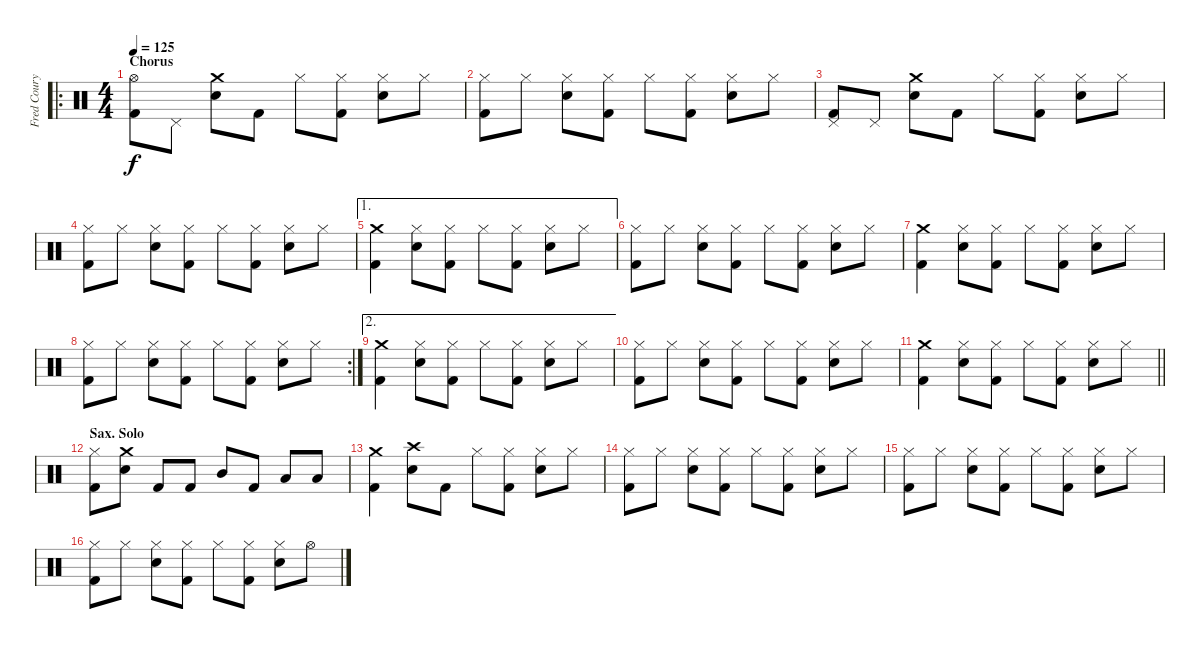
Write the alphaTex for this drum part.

\track ("Fred Coury - Drums" "Fred Coury") {instrument percussion}
\staff {score}
\articulation defaults
\ro
\ts (4 4)
\section ("" "Chorus")
\tempo 125
\clef neutral
\ks c
("Hi-Hat (open)" "Kick (hit) 2").8{dy f} "Pedal Hi-Hat (hit)".8 ("Crash medium (hit)" "Snare (hit) 2").8 "Kick (hit) 2".8 "Hi-Hat (closed)".8 ("Hi-Hat (closed)" "Kick (hit) 2").8 ("Hi-Hat (closed)" "Snare (hit) 2").8 "Hi-Hat (closed)".8 |
("Hi-Hat (closed)" "Kick (hit) 2").8 "Hi-Hat (closed)".8 ("Hi-Hat (closed)" "Snare (hit) 2").8 ("Hi-Hat (closed)" "Kick (hit) 2").8 "Hi-Hat (closed)".8 ("Hi-Hat (closed)" "Kick (hit) 2").8 ("Hi-Hat (closed)" "Snare (hit) 2").8 "Hi-Hat (closed)".8 |
("Pedal Hi-Hat (hit)" "Kick (hit) 2").8 "Pedal Hi-Hat (hit)".8 ("Crash medium (hit)" "Snare (hit) 2").8 "Kick (hit) 2".8 "Hi-Hat (closed)".8 ("Hi-Hat (closed)" "Kick (hit) 2").8 ("Hi-Hat (closed)" "Snare (hit) 2").8 "Hi-Hat (closed)".8 |
("Hi-Hat (closed)" "Kick (hit) 2").8 "Hi-Hat (closed)".8 ("Hi-Hat (closed)" "Snare (hit) 2").8 ("Hi-Hat (closed)" "Kick (hit) 2").8 "Hi-Hat (closed)".8 ("Hi-Hat (closed)" "Kick (hit) 2").8 ("Hi-Hat (closed)" "Snare (hit) 2").8 "Hi-Hat (closed)".8 |
\ae 1
("Crash medium (hit)" "Kick (hit) 2").4 ("Hi-Hat (closed)" "Snare (hit) 2").8 ("Hi-Hat (closed)" "Kick (hit) 2").8 "Hi-Hat (closed)".8 ("Hi-Hat (closed)" "Kick (hit) 2").8 ("Hi-Hat (closed)" "Snare (hit) 2").8 "Hi-Hat (closed)".8 |
("Hi-Hat (closed)" "Kick (hit) 2").8 "Hi-Hat (closed)".8 ("Hi-Hat (closed)" "Snare (hit) 2").8 ("Hi-Hat (closed)" "Kick (hit) 2").8 "Hi-Hat (closed)".8 ("Hi-Hat (closed)" "Kick (hit) 2").8 ("Hi-Hat (closed)" "Snare (hit) 2").8 "Hi-Hat (closed)".8 |
("Crash medium (hit)" "Kick (hit) 2").4 ("Hi-Hat (closed)" "Snare (hit) 2").8 ("Hi-Hat (closed)" "Kick (hit) 2").8 "Hi-Hat (closed)".8 ("Hi-Hat (closed)" "Kick (hit) 2").8 ("Hi-Hat (closed)" "Snare (hit) 2").8 "Hi-Hat (closed)".8 |
\rc 2
("Hi-Hat (closed)" "Kick (hit) 2").8 "Hi-Hat (closed)".8 ("Hi-Hat (closed)" "Snare (hit) 2").8 ("Hi-Hat (closed)" "Kick (hit) 2").8 "Hi-Hat (closed)".8 ("Hi-Hat (closed)" "Kick (hit) 2").8 ("Hi-Hat (closed)" "Snare (hit) 2").8 "Hi-Hat (closed)".8 |
\ae 2
("Crash medium (hit)" "Kick (hit) 2").4 ("Hi-Hat (closed)" "Snare (hit) 2").8 ("Hi-Hat (closed)" "Kick (hit) 2").8 "Hi-Hat (closed)".8 ("Hi-Hat (closed)" "Kick (hit) 2").8 ("Hi-Hat (closed)" "Snare (hit) 2").8 "Hi-Hat (closed)".8 |
("Hi-Hat (closed)" "Kick (hit) 2").8 "Hi-Hat (closed)".8 ("Hi-Hat (closed)" "Snare (hit) 2").8 ("Hi-Hat (closed)" "Kick (hit) 2").8 "Hi-Hat (closed)".8 ("Hi-Hat (closed)" "Kick (hit) 2").8 ("Hi-Hat (closed)" "Snare (hit) 2").8 "Hi-Hat (closed)".8 |
\barLineRight lightlight
("Crash medium (hit)" "Kick (hit) 2").4 ("Hi-Hat (closed)" "Snare (hit) 2").8 ("Hi-Hat (closed)" "Kick (hit) 2").8 "Hi-Hat (closed)".8 ("Hi-Hat (closed)" "Kick (hit) 2").8 ("Hi-Hat (closed)" "Snare (hit) 2").8 "Hi-Hat (closed)".8 |
\section ("" "Sax. Solo")
("Hi-Hat (closed)" "Kick (hit) 2").8 ("Crash medium (hit)" "Snare (hit) 2").8 "Kick (hit) 2".8 "Kick (hit) 2".8 "Mid Tom (hit)".8 "Kick (hit) 2".8 "Low Tom (hit)".8 "Low Tom (hit)".8 |
("Crash medium (hit)" "Kick (hit) 2").4 ("Crash high (hit)" "Snare (hit) 2").8 "Kick (hit) 2".8 "Hi-Hat (closed)".8 ("Hi-Hat (closed)" "Kick (hit) 2").8 ("Hi-Hat (closed)" "Snare (hit) 2").8 "Hi-Hat (closed)".8 |
("Hi-Hat (closed)" "Kick (hit) 2").8 "Hi-Hat (closed)".8 ("Hi-Hat (closed)" "Snare (hit) 2").8 ("Hi-Hat (closed)" "Kick (hit) 2").8 "Hi-Hat (closed)".8 ("Hi-Hat (closed)" "Kick (hit) 2").8 ("Hi-Hat (closed)" "Snare (hit) 2").8 "Hi-Hat (closed)".8 |
("Hi-Hat (closed)" "Kick (hit) 2").8 "Hi-Hat (closed)".8 ("Hi-Hat (closed)" "Snare (hit) 2").8 ("Hi-Hat (closed)" "Kick (hit) 2").8 "Hi-Hat (closed)".8 ("Hi-Hat (closed)" "Kick (hit) 2").8 ("Hi-Hat (closed)" "Snare (hit) 2").8 "Hi-Hat (closed)".8 |
("Hi-Hat (closed)" "Kick (hit) 2").8 "Hi-Hat (closed)".8 ("Hi-Hat (closed)" "Snare (hit) 2").8 ("Hi-Hat (closed)" "Kick (hit) 2").8 "Hi-Hat (closed)".8 ("Hi-Hat (closed)" "Kick (hit) 2").8 ("Hi-Hat (closed)" "Snare (hit) 2").8 "Hi-Hat (open)".8
